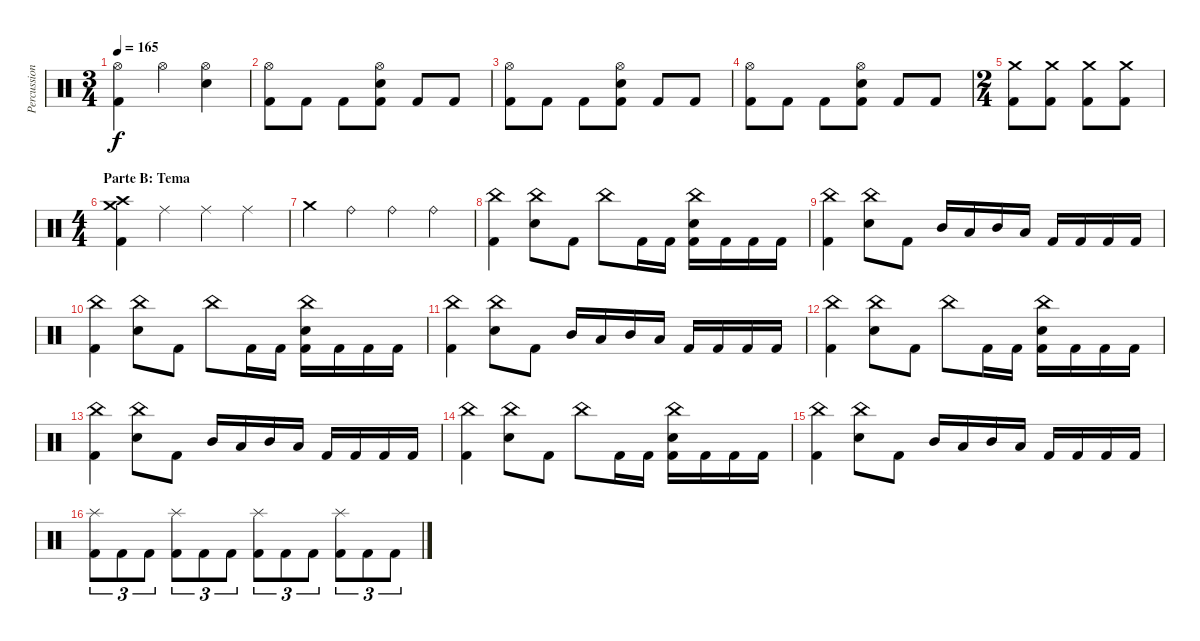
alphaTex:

\track ("Percussion" "Percussion") {instrument percussion}
\staff {score}
\articulation defaults
\ts (3 4)
\tempo 165
\clef neutral
\ks c
("Hi-Hat (open)" "Kick (hit) 2").4{dy f} "Hi-Hat (open)".4 ("Hi-Hat (open)" "Snare (hit) 2").4 |
("Hi-Hat (open)" "Kick (hit) 2").8 "Kick (hit) 2".8 "Kick (hit) 2".8 ("Hi-Hat (open)" "Snare (hit) 2" "Kick (hit) 2").8 "Kick (hit) 2".8 "Kick (hit) 2".8 |
("Hi-Hat (open)" "Kick (hit) 2").8 "Kick (hit) 2".8 "Kick (hit) 2".8 ("Hi-Hat (open)" "Snare (hit) 2" "Kick (hit) 2").8 "Kick (hit) 2".8 "Kick (hit) 2".8 |
("Hi-Hat (open)" "Kick (hit) 2").8 "Kick (hit) 2".8 "Kick (hit) 2".8 ("Hi-Hat (open)" "Snare (hit) 2" "Kick (hit) 2").8 "Kick (hit) 2".8 "Kick (hit) 2".8 |
\ts (2 4)
("Crash medium (hit)" "Kick (hit) 2").8 ("Crash medium (hit)" "Kick (hit) 2").8 ("Crash medium (hit)" "Kick (hit) 2").8 ("Crash medium (hit)" "Kick (hit) 2").8 |
\ts (4 4)
\section ("" "Parte B: Tema")
("Crash high (hit)" "Crash medium (hit)" "Kick (hit) 2").4 "Ride (middle)".4 "Ride (middle)".4 "Ride (middle)".4 |
"Crash medium (hit)".4 "Ride (bell)".4 "Ride (bell)".4 "Ride (bell)".4 |
("China (hit)" "Kick (hit) 2").4 ("China (hit)" "Snare (hit) 2").8 "Kick (hit) 2".8 "China (hit)".8 "Kick (hit) 2".16 "Kick (hit) 2".16 ("China (hit)" "Snare (hit) 2" "Kick (hit) 2").16 "Kick (hit) 2".16 "Kick (hit) 2".16 "Kick (hit) 2".16 |
("China (hit)" "Kick (hit) 2").4 ("China (hit)" "Snare (hit) 2").8 "Kick (hit) 2".8 "Mid Tom (hit)".16 "Low Tom (hit)".16 "Mid Tom (hit)".16 "Low Tom (hit)".16 "Kick (hit) 2".16 "Kick (hit) 2".16 "Kick (hit) 2".16 "Kick (hit) 2".16 |
("China (hit)" "Kick (hit) 2").4 ("China (hit)" "Snare (hit) 2").8 "Kick (hit) 2".8 "China (hit)".8 "Kick (hit) 2".16 "Kick (hit) 2".16 ("China (hit)" "Snare (hit) 2" "Kick (hit) 2").16 "Kick (hit) 2".16 "Kick (hit) 2".16 "Kick (hit) 2".16 |
("China (hit)" "Kick (hit) 2").4 ("China (hit)" "Snare (hit) 2").8 "Kick (hit) 2".8 "Mid Tom (hit)".16 "Low Tom (hit)".16 "Mid Tom (hit)".16 "Low Tom (hit)".16 "Kick (hit) 2".16 "Kick (hit) 2".16 "Kick (hit) 2".16 "Kick (hit) 2".16 |
("China (hit)" "Kick (hit) 2").4 ("China (hit)" "Snare (hit) 2").8 "Kick (hit) 2".8 "China (hit)".8 "Kick (hit) 2".16 "Kick (hit) 2".16 ("China (hit)" "Snare (hit) 2" "Kick (hit) 2").16 "Kick (hit) 2".16 "Kick (hit) 2".16 "Kick (hit) 2".16 |
("China (hit)" "Kick (hit) 2").4 ("China (hit)" "Snare (hit) 2").8 "Kick (hit) 2".8 "Mid Tom (hit)".16 "Low Tom (hit)".16 "Mid Tom (hit)".16 "Low Tom (hit)".16 "Kick (hit) 2".16 "Kick (hit) 2".16 "Kick (hit) 2".16 "Kick (hit) 2".16 |
("China (hit)" "Kick (hit) 2").4 ("China (hit)" "Snare (hit) 2").8 "Kick (hit) 2".8 "China (hit)".8 "Kick (hit) 2".16 "Kick (hit) 2".16 ("China (hit)" "Snare (hit) 2" "Kick (hit) 2").16 "Kick (hit) 2".16 "Kick (hit) 2".16 "Kick (hit) 2".16 |
("China (hit)" "Kick (hit) 2").4 ("China (hit)" "Snare (hit) 2").8 "Kick (hit) 2".8 "Mid Tom (hit)".16 "Low Tom (hit)".16 "Mid Tom (hit)".16 "Low Tom (hit)".16 "Kick (hit) 2".16 "Kick (hit) 2".16 "Kick (hit) 2".16 "Kick (hit) 2".16 |
("Splash (hit)" "Kick (hit) 2").8{tu (3 2)} "Kick (hit) 2".8{tu (3 2)} "Kick (hit) 2".8{tu (3 2)} ("Splash (hit)" "Kick (hit) 2").8{tu (3 2)} "Kick (hit) 2".8{tu (3 2)} "Kick (hit) 2".8{tu (3 2)} ("Splash (hit)" "Kick (hit) 2").8{tu (3 2)} "Kick (hit) 2".8{tu (3 2)} "Kick (hit) 2".8{tu (3 2)} ("Splash (hit)" "Kick (hit) 2").8{tu (3 2)} "Kick (hit) 2".8{tu (3 2)} "Kick (hit) 2".8{tu (3 2)}
